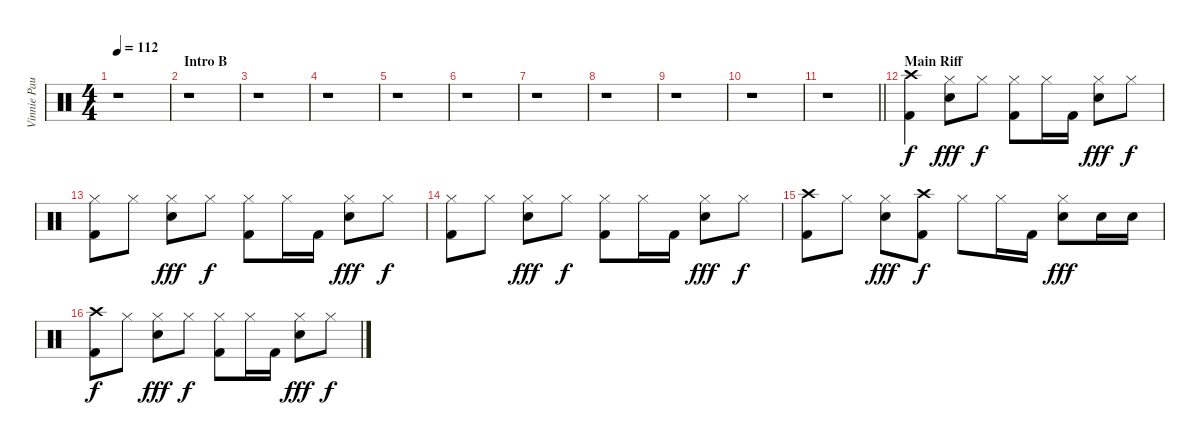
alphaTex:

\track ("Vinnie Paul" "Vinnie Pau") {instrument percussion}
\staff {score}
\articulation defaults
\ts (4 4)
\tempo 112
\clef neutral
\ks c
r.1{dy f} |
\section ("" "Intro B")
r.1 |
r.1 |
r.1 |
r.1 |
r.1 |
r.1 |
r.1 |
r.1 |
r.1 |
\barLineRight lightlight
r.1 |
\section ("" "Main Riff")
("Crash high (hit)" "Kick (hit) 2").4 ("Hi-Hat (closed)" "Electric Snare (hit)").8{dy fff} "Hi-Hat (closed)".8{dy f} ("Hi-Hat (closed)" "Kick (hit) 2").8 "Hi-Hat (closed)".16 "Kick (hit) 2".16 ("Hi-Hat (closed)" "Electric Snare (hit)").8{dy fff} "Hi-Hat (closed)".8{dy f} |
("Hi-Hat (closed)" "Kick (hit) 2").8 "Hi-Hat (closed)".8 ("Hi-Hat (closed)" "Electric Snare (hit)").8{dy fff} "Hi-Hat (closed)".8{dy f} ("Hi-Hat (closed)" "Kick (hit) 2").8 "Hi-Hat (closed)".16 "Kick (hit) 2".16 ("Hi-Hat (closed)" "Electric Snare (hit)").8{dy fff} "Hi-Hat (closed)".8{dy f} |
("Hi-Hat (closed)" "Kick (hit) 2").8 "Hi-Hat (closed)".8 ("Hi-Hat (closed)" "Electric Snare (hit)").8{dy fff} "Hi-Hat (closed)".8{dy f} ("Hi-Hat (closed)" "Kick (hit) 2").8 "Hi-Hat (closed)".16 "Kick (hit) 2".16 ("Hi-Hat (closed)" "Electric Snare (hit)").8{dy fff} "Hi-Hat (closed)".8{dy f} |
("Crash high (hit)" "Kick (hit) 2").8 "Hi-Hat (closed)".8 ("Hi-Hat (closed)" "Electric Snare (hit)").8{dy fff} ("Crash high (hit)" "Kick (hit) 2").8{dy f} "Hi-Hat (closed)".8 "Hi-Hat (closed)".16 "Kick (hit) 2".16 ("Hi-Hat (closed)" "Electric Snare (hit)").8{dy fff} "Electric Snare (hit)".16 "Electric Snare (hit)".16 |
("Crash high (hit)" "Kick (hit) 2").8{dy f} "Hi-Hat (closed)".8 ("Hi-Hat (closed)" "Electric Snare (hit)").8{dy fff} "Hi-Hat (closed)".8{dy f} ("Hi-Hat (closed)" "Kick (hit) 2").8 "Hi-Hat (closed)".16 "Kick (hit) 2".16 ("Hi-Hat (closed)" "Electric Snare (hit)").8{dy fff} "Hi-Hat (closed)".8{dy f}
